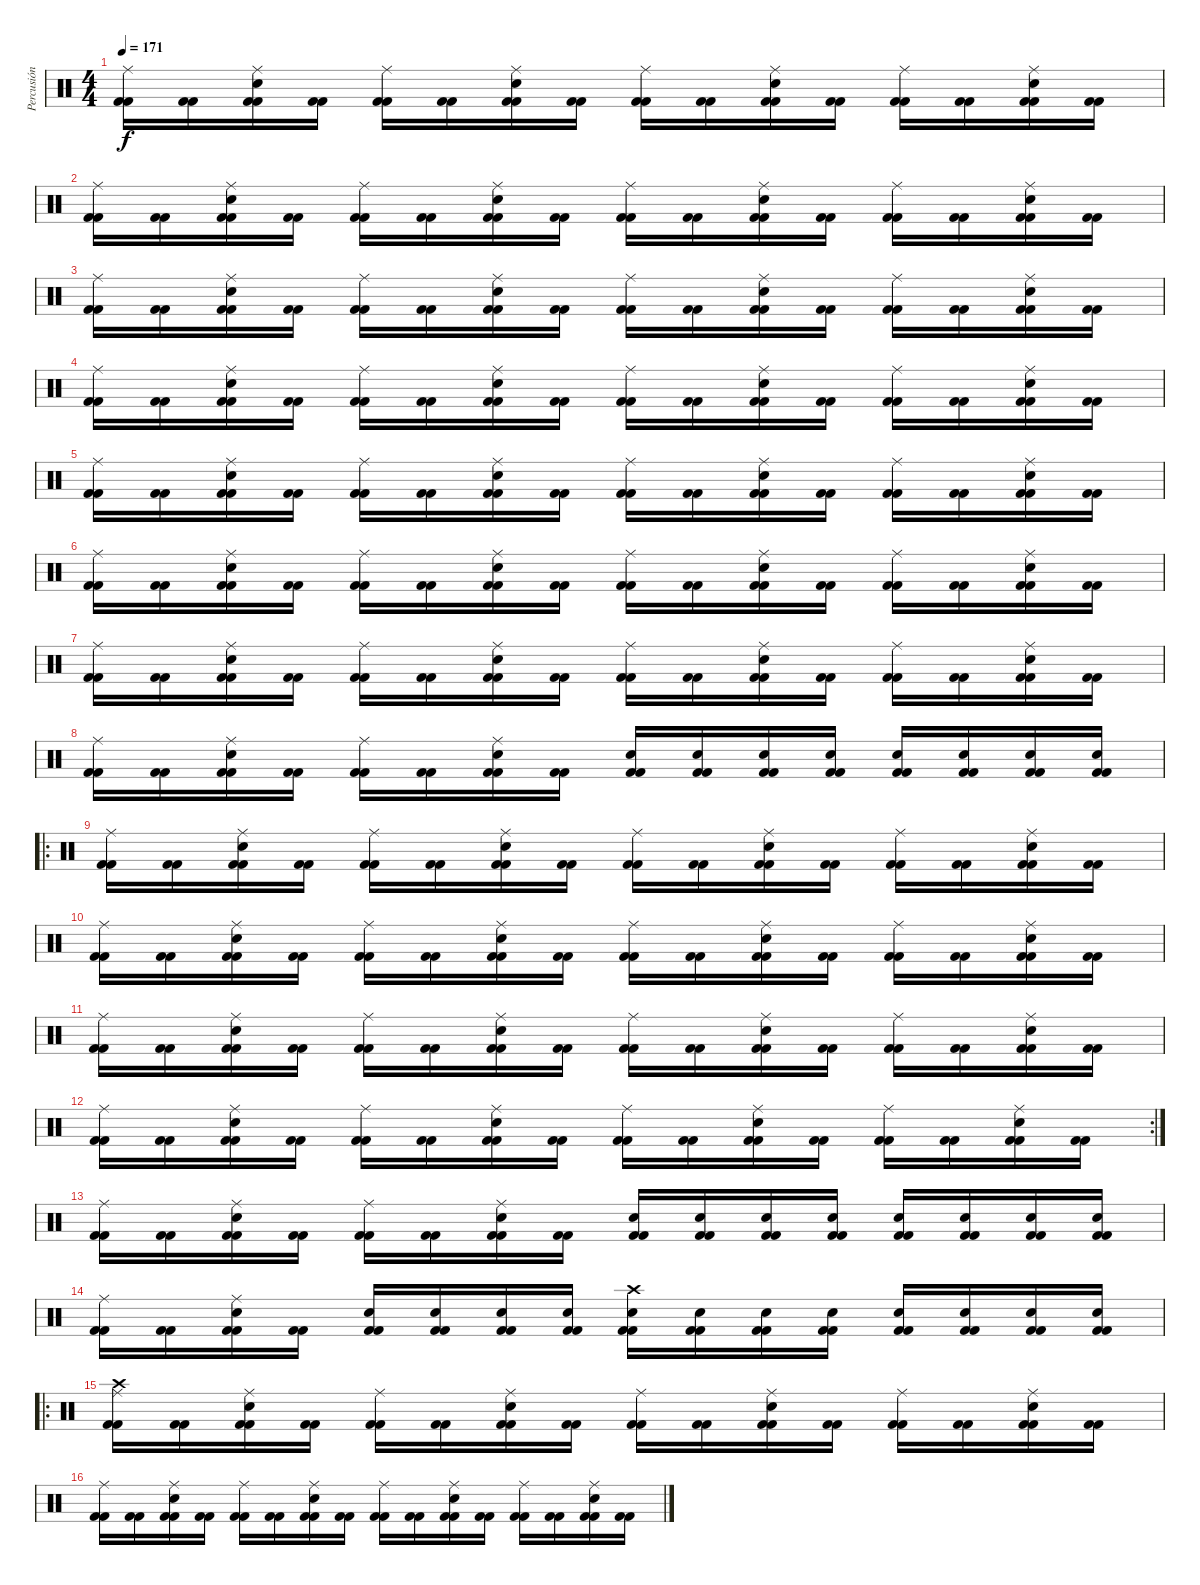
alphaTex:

\track ("Percusión" "Percusión") {instrument percussion}
\staff {score}
\articulation defaults
\ts (4 4)
\tempo 171
\clef neutral
\ks c
("Kick (hit) 2" "Kick (hit) 2" "Ride (middle)").16{dy f} ("Kick (hit) 2" "Kick (hit) 2").16 ("Kick (hit) 2" "Kick (hit) 2" "Electric Snare (hit)" "Ride (middle)").16 ("Kick (hit) 2" "Kick (hit) 2").16 ("Kick (hit) 2" "Kick (hit) 2" "Ride (middle)").16 ("Kick (hit) 2" "Kick (hit) 2").16 ("Kick (hit) 2" "Kick (hit) 2" "Electric Snare (hit)" "Ride (middle)").16 ("Kick (hit) 2" "Kick (hit) 2").16 ("Kick (hit) 2" "Kick (hit) 2" "Ride (middle)").16 ("Kick (hit) 2" "Kick (hit) 2").16 ("Kick (hit) 2" "Kick (hit) 2" "Electric Snare (hit)" "Ride (middle)").16 ("Kick (hit) 2" "Kick (hit) 2").16 ("Kick (hit) 2" "Kick (hit) 2" "Ride (middle)").16 ("Kick (hit) 2" "Kick (hit) 2").16 ("Kick (hit) 2" "Kick (hit) 2" "Electric Snare (hit)" "Ride (middle)").16 ("Kick (hit) 2" "Kick (hit) 2").16 |
("Kick (hit) 2" "Kick (hit) 2" "Ride (middle)").16 ("Kick (hit) 2" "Kick (hit) 2").16 ("Kick (hit) 2" "Kick (hit) 2" "Electric Snare (hit)" "Ride (middle)").16 ("Kick (hit) 2" "Kick (hit) 2").16 ("Kick (hit) 2" "Kick (hit) 2" "Ride (middle)").16 ("Kick (hit) 2" "Kick (hit) 2").16 ("Kick (hit) 2" "Kick (hit) 2" "Electric Snare (hit)" "Ride (middle)").16 ("Kick (hit) 2" "Kick (hit) 2").16 ("Kick (hit) 2" "Kick (hit) 2" "Ride (middle)").16 ("Kick (hit) 2" "Kick (hit) 2").16 ("Kick (hit) 2" "Kick (hit) 2" "Electric Snare (hit)" "Ride (middle)").16 ("Kick (hit) 2" "Kick (hit) 2").16 ("Kick (hit) 2" "Kick (hit) 2" "Ride (middle)").16 ("Kick (hit) 2" "Kick (hit) 2").16 ("Kick (hit) 2" "Kick (hit) 2" "Electric Snare (hit)" "Ride (middle)").16 ("Kick (hit) 2" "Kick (hit) 2").16 |
("Kick (hit) 2" "Kick (hit) 2" "Ride (middle)").16 ("Kick (hit) 2" "Kick (hit) 2").16 ("Kick (hit) 2" "Kick (hit) 2" "Electric Snare (hit)" "Ride (middle)").16 ("Kick (hit) 2" "Kick (hit) 2").16 ("Kick (hit) 2" "Kick (hit) 2" "Ride (middle)").16 ("Kick (hit) 2" "Kick (hit) 2").16 ("Kick (hit) 2" "Kick (hit) 2" "Electric Snare (hit)" "Ride (middle)").16 ("Kick (hit) 2" "Kick (hit) 2").16 ("Kick (hit) 2" "Kick (hit) 2" "Ride (middle)").16 ("Kick (hit) 2" "Kick (hit) 2").16 ("Kick (hit) 2" "Kick (hit) 2" "Electric Snare (hit)" "Ride (middle)").16 ("Kick (hit) 2" "Kick (hit) 2").16 ("Kick (hit) 2" "Kick (hit) 2" "Ride (middle)").16 ("Kick (hit) 2" "Kick (hit) 2").16 ("Kick (hit) 2" "Kick (hit) 2" "Electric Snare (hit)" "Ride (middle)").16 ("Kick (hit) 2" "Kick (hit) 2").16 |
("Kick (hit) 2" "Kick (hit) 2" "Ride (middle)").16 ("Kick (hit) 2" "Kick (hit) 2").16 ("Kick (hit) 2" "Kick (hit) 2" "Electric Snare (hit)" "Ride (middle)").16 ("Kick (hit) 2" "Kick (hit) 2").16 ("Kick (hit) 2" "Kick (hit) 2" "Ride (middle)").16 ("Kick (hit) 2" "Kick (hit) 2").16 ("Kick (hit) 2" "Kick (hit) 2" "Electric Snare (hit)" "Ride (middle)").16 ("Kick (hit) 2" "Kick (hit) 2").16 ("Kick (hit) 2" "Kick (hit) 2" "Ride (middle)").16 ("Kick (hit) 2" "Kick (hit) 2").16 ("Kick (hit) 2" "Kick (hit) 2" "Electric Snare (hit)" "Ride (middle)").16 ("Kick (hit) 2" "Kick (hit) 2").16 ("Kick (hit) 2" "Kick (hit) 2" "Ride (middle)").16 ("Kick (hit) 2" "Kick (hit) 2").16 ("Kick (hit) 2" "Kick (hit) 2" "Electric Snare (hit)" "Ride (middle)").16 ("Kick (hit) 2" "Kick (hit) 2").16 |
("Kick (hit) 2" "Kick (hit) 2" "Ride (middle)").16 ("Kick (hit) 2" "Kick (hit) 2").16 ("Kick (hit) 2" "Kick (hit) 2" "Electric Snare (hit)" "Ride (middle)").16 ("Kick (hit) 2" "Kick (hit) 2").16 ("Kick (hit) 2" "Kick (hit) 2" "Ride (middle)").16 ("Kick (hit) 2" "Kick (hit) 2").16 ("Kick (hit) 2" "Kick (hit) 2" "Electric Snare (hit)" "Ride (middle)").16 ("Kick (hit) 2" "Kick (hit) 2").16 ("Kick (hit) 2" "Kick (hit) 2" "Ride (middle)").16 ("Kick (hit) 2" "Kick (hit) 2").16 ("Kick (hit) 2" "Kick (hit) 2" "Electric Snare (hit)" "Ride (middle)").16 ("Kick (hit) 2" "Kick (hit) 2").16 ("Kick (hit) 2" "Kick (hit) 2" "Ride (middle)").16 ("Kick (hit) 2" "Kick (hit) 2").16 ("Kick (hit) 2" "Kick (hit) 2" "Electric Snare (hit)" "Ride (middle)").16 ("Kick (hit) 2" "Kick (hit) 2").16 |
("Kick (hit) 2" "Kick (hit) 2" "Ride (middle)").16 ("Kick (hit) 2" "Kick (hit) 2").16 ("Kick (hit) 2" "Kick (hit) 2" "Electric Snare (hit)" "Ride (middle)").16 ("Kick (hit) 2" "Kick (hit) 2").16 ("Kick (hit) 2" "Kick (hit) 2" "Ride (middle)").16 ("Kick (hit) 2" "Kick (hit) 2").16 ("Kick (hit) 2" "Kick (hit) 2" "Electric Snare (hit)" "Ride (middle)").16 ("Kick (hit) 2" "Kick (hit) 2").16 ("Kick (hit) 2" "Kick (hit) 2" "Ride (middle)").16 ("Kick (hit) 2" "Kick (hit) 2").16 ("Kick (hit) 2" "Kick (hit) 2" "Electric Snare (hit)" "Ride (middle)").16 ("Kick (hit) 2" "Kick (hit) 2").16 ("Kick (hit) 2" "Kick (hit) 2" "Ride (middle)").16 ("Kick (hit) 2" "Kick (hit) 2").16 ("Kick (hit) 2" "Kick (hit) 2" "Electric Snare (hit)" "Ride (middle)").16 ("Kick (hit) 2" "Kick (hit) 2").16 |
("Kick (hit) 2" "Kick (hit) 2" "Ride (middle)").16 ("Kick (hit) 2" "Kick (hit) 2").16 ("Kick (hit) 2" "Kick (hit) 2" "Electric Snare (hit)" "Ride (middle)").16 ("Kick (hit) 2" "Kick (hit) 2").16 ("Kick (hit) 2" "Kick (hit) 2" "Ride (middle)").16 ("Kick (hit) 2" "Kick (hit) 2").16 ("Kick (hit) 2" "Kick (hit) 2" "Electric Snare (hit)" "Ride (middle)").16 ("Kick (hit) 2" "Kick (hit) 2").16 ("Kick (hit) 2" "Kick (hit) 2" "Ride (middle)").16 ("Kick (hit) 2" "Kick (hit) 2").16 ("Kick (hit) 2" "Kick (hit) 2" "Electric Snare (hit)" "Ride (middle)").16 ("Kick (hit) 2" "Kick (hit) 2").16 ("Kick (hit) 2" "Kick (hit) 2" "Ride (middle)").16 ("Kick (hit) 2" "Kick (hit) 2").16 ("Kick (hit) 2" "Kick (hit) 2" "Electric Snare (hit)" "Ride (middle)").16 ("Kick (hit) 2" "Kick (hit) 2").16 |
("Kick (hit) 2" "Kick (hit) 2" "Ride (middle)").16 ("Kick (hit) 2" "Kick (hit) 2").16 ("Kick (hit) 2" "Kick (hit) 2" "Electric Snare (hit)" "Ride (middle)").16 ("Kick (hit) 2" "Kick (hit) 2").16 ("Kick (hit) 2" "Kick (hit) 2" "Ride (middle)").16 ("Kick (hit) 2" "Kick (hit) 2").16 ("Kick (hit) 2" "Kick (hit) 2" "Electric Snare (hit)" "Ride (middle)").16 ("Kick (hit) 2" "Kick (hit) 2").16 ("Kick (hit) 2" "Kick (hit) 2" "Electric Snare (hit)").16 ("Kick (hit) 2" "Kick (hit) 2" "Electric Snare (hit)").16 ("Kick (hit) 2" "Kick (hit) 2" "Electric Snare (hit)").16 ("Kick (hit) 2" "Kick (hit) 2" "Electric Snare (hit)").16 ("Kick (hit) 2" "Kick (hit) 2" "Electric Snare (hit)").16 ("Kick (hit) 2" "Kick (hit) 2" "Electric Snare (hit)").16 ("Kick (hit) 2" "Kick (hit) 2" "Electric Snare (hit)").16 ("Kick (hit) 2" "Kick (hit) 2" "Electric Snare (hit)").16 |
\ro
("Kick (hit) 2" "Kick (hit) 2" "Ride (middle)").16 ("Kick (hit) 2" "Kick (hit) 2").16 ("Kick (hit) 2" "Kick (hit) 2" "Electric Snare (hit)" "Ride (middle)").16 ("Kick (hit) 2" "Kick (hit) 2").16 ("Kick (hit) 2" "Kick (hit) 2" "Ride (middle)").16 ("Kick (hit) 2" "Kick (hit) 2").16 ("Kick (hit) 2" "Kick (hit) 2" "Electric Snare (hit)" "Ride (middle)").16 ("Kick (hit) 2" "Kick (hit) 2").16 ("Kick (hit) 2" "Kick (hit) 2" "Ride (middle)").16 ("Kick (hit) 2" "Kick (hit) 2").16 ("Kick (hit) 2" "Kick (hit) 2" "Electric Snare (hit)" "Ride (middle)").16 ("Kick (hit) 2" "Kick (hit) 2").16 ("Kick (hit) 2" "Kick (hit) 2" "Ride (middle)").16 ("Kick (hit) 2" "Kick (hit) 2").16 ("Kick (hit) 2" "Kick (hit) 2" "Electric Snare (hit)" "Ride (middle)").16 ("Kick (hit) 2" "Kick (hit) 2").16 |
("Kick (hit) 2" "Kick (hit) 2" "Ride (middle)").16 ("Kick (hit) 2" "Kick (hit) 2").16 ("Kick (hit) 2" "Kick (hit) 2" "Electric Snare (hit)" "Ride (middle)").16 ("Kick (hit) 2" "Kick (hit) 2").16 ("Kick (hit) 2" "Kick (hit) 2" "Ride (middle)").16 ("Kick (hit) 2" "Kick (hit) 2").16 ("Kick (hit) 2" "Kick (hit) 2" "Electric Snare (hit)" "Ride (middle)").16 ("Kick (hit) 2" "Kick (hit) 2").16 ("Kick (hit) 2" "Kick (hit) 2" "Ride (middle)").16 ("Kick (hit) 2" "Kick (hit) 2").16 ("Kick (hit) 2" "Kick (hit) 2" "Electric Snare (hit)" "Ride (middle)").16 ("Kick (hit) 2" "Kick (hit) 2").16 ("Kick (hit) 2" "Kick (hit) 2" "Ride (middle)").16 ("Kick (hit) 2" "Kick (hit) 2").16 ("Kick (hit) 2" "Kick (hit) 2" "Electric Snare (hit)" "Ride (middle)").16 ("Kick (hit) 2" "Kick (hit) 2").16 |
("Kick (hit) 2" "Kick (hit) 2" "Ride (middle)").16 ("Kick (hit) 2" "Kick (hit) 2").16 ("Kick (hit) 2" "Kick (hit) 2" "Electric Snare (hit)" "Ride (middle)").16 ("Kick (hit) 2" "Kick (hit) 2").16 ("Kick (hit) 2" "Kick (hit) 2" "Ride (middle)").16 ("Kick (hit) 2" "Kick (hit) 2").16 ("Kick (hit) 2" "Kick (hit) 2" "Electric Snare (hit)" "Ride (middle)").16 ("Kick (hit) 2" "Kick (hit) 2").16 ("Kick (hit) 2" "Kick (hit) 2" "Ride (middle)").16 ("Kick (hit) 2" "Kick (hit) 2").16 ("Kick (hit) 2" "Kick (hit) 2" "Electric Snare (hit)" "Ride (middle)").16 ("Kick (hit) 2" "Kick (hit) 2").16 ("Kick (hit) 2" "Kick (hit) 2" "Ride (middle)").16 ("Kick (hit) 2" "Kick (hit) 2").16 ("Kick (hit) 2" "Kick (hit) 2" "Electric Snare (hit)" "Ride (middle)").16 ("Kick (hit) 2" "Kick (hit) 2").16 |
\rc 2
("Kick (hit) 2" "Kick (hit) 2" "Ride (middle)").16 ("Kick (hit) 2" "Kick (hit) 2").16 ("Kick (hit) 2" "Kick (hit) 2" "Electric Snare (hit)" "Ride (middle)").16 ("Kick (hit) 2" "Kick (hit) 2").16 ("Kick (hit) 2" "Kick (hit) 2" "Ride (middle)").16 ("Kick (hit) 2" "Kick (hit) 2").16 ("Kick (hit) 2" "Kick (hit) 2" "Electric Snare (hit)" "Ride (middle)").16 ("Kick (hit) 2" "Kick (hit) 2").16 ("Kick (hit) 2" "Kick (hit) 2" "Ride (middle)").16 ("Kick (hit) 2" "Kick (hit) 2").16 ("Kick (hit) 2" "Kick (hit) 2" "Electric Snare (hit)" "Ride (middle)").16 ("Kick (hit) 2" "Kick (hit) 2").16 ("Kick (hit) 2" "Kick (hit) 2" "Ride (middle)").16 ("Kick (hit) 2" "Kick (hit) 2").16 ("Kick (hit) 2" "Kick (hit) 2" "Electric Snare (hit)" "Ride (middle)").16 ("Kick (hit) 2" "Kick (hit) 2").16 |
("Kick (hit) 2" "Kick (hit) 2" "Ride (middle)").16 ("Kick (hit) 2" "Kick (hit) 2").16 ("Kick (hit) 2" "Kick (hit) 2" "Electric Snare (hit)" "Ride (middle)").16 ("Kick (hit) 2" "Kick (hit) 2").16 ("Kick (hit) 2" "Kick (hit) 2" "Ride (middle)").16 ("Kick (hit) 2" "Kick (hit) 2").16 ("Kick (hit) 2" "Kick (hit) 2" "Electric Snare (hit)" "Ride (middle)").16 ("Kick (hit) 2" "Kick (hit) 2").16 ("Kick (hit) 2" "Kick (hit) 2" "Electric Snare (hit)").16 ("Kick (hit) 2" "Kick (hit) 2" "Electric Snare (hit)").16 ("Kick (hit) 2" "Kick (hit) 2" "Electric Snare (hit)").16 ("Kick (hit) 2" "Kick (hit) 2" "Electric Snare (hit)").16 ("Kick (hit) 2" "Kick (hit) 2" "Electric Snare (hit)").16 ("Kick (hit) 2" "Kick (hit) 2" "Electric Snare (hit)").16 ("Kick (hit) 2" "Kick (hit) 2" "Electric Snare (hit)").16 ("Kick (hit) 2" "Kick (hit) 2" "Electric Snare (hit)").16 |
("Kick (hit) 2" "Kick (hit) 2" "Ride (middle)").16 ("Kick (hit) 2" "Kick (hit) 2").16 ("Kick (hit) 2" "Kick (hit) 2" "Electric Snare (hit)" "Ride (middle)").16 ("Kick (hit) 2" "Kick (hit) 2").16 ("Kick (hit) 2" "Kick (hit) 2" "Electric Snare (hit)").16 ("Kick (hit) 2" "Kick (hit) 2" "Electric Snare (hit)").16 ("Kick (hit) 2" "Kick (hit) 2" "Electric Snare (hit)").16 ("Kick (hit) 2" "Kick (hit) 2" "Electric Snare (hit)").16 ("Kick (hit) 2" "Kick (hit) 2" "Electric Snare (hit)" "Crash high (hit)").16 ("Kick (hit) 2" "Kick (hit) 2" "Electric Snare (hit)").16 ("Kick (hit) 2" "Kick (hit) 2" "Electric Snare (hit)").16 ("Kick (hit) 2" "Kick (hit) 2" "Electric Snare (hit)").16 ("Kick (hit) 2" "Kick (hit) 2" "Electric Snare (hit)").16 ("Kick (hit) 2" "Kick (hit) 2" "Electric Snare (hit)").16 ("Kick (hit) 2" "Kick (hit) 2" "Electric Snare (hit)").16 ("Kick (hit) 2" "Kick (hit) 2" "Electric Snare (hit)").16 |
\ro
("Kick (hit) 2" "Kick (hit) 2" "Ride (middle)" "Crash high (hit)").16 ("Kick (hit) 2" "Kick (hit) 2").16 ("Kick (hit) 2" "Kick (hit) 2" "Electric Snare (hit)" "Ride (middle)").16 ("Kick (hit) 2" "Kick (hit) 2").16 ("Kick (hit) 2" "Kick (hit) 2" "Ride (middle)").16 ("Kick (hit) 2" "Kick (hit) 2").16 ("Kick (hit) 2" "Kick (hit) 2" "Electric Snare (hit)" "Ride (middle)").16 ("Kick (hit) 2" "Kick (hit) 2").16 ("Kick (hit) 2" "Kick (hit) 2" "Ride (middle)").16 ("Kick (hit) 2" "Kick (hit) 2").16 ("Kick (hit) 2" "Kick (hit) 2" "Electric Snare (hit)" "Ride (middle)").16 ("Kick (hit) 2" "Kick (hit) 2").16 ("Kick (hit) 2" "Kick (hit) 2" "Ride (middle)").16 ("Kick (hit) 2" "Kick (hit) 2").16 ("Kick (hit) 2" "Kick (hit) 2" "Electric Snare (hit)" "Ride (middle)").16 ("Kick (hit) 2" "Kick (hit) 2").16 |
("Kick (hit) 2" "Kick (hit) 2" "Ride (middle)").16 ("Kick (hit) 2" "Kick (hit) 2").16 ("Kick (hit) 2" "Kick (hit) 2" "Electric Snare (hit)" "Ride (middle)").16 ("Kick (hit) 2" "Kick (hit) 2").16 ("Kick (hit) 2" "Kick (hit) 2" "Ride (middle)").16 ("Kick (hit) 2" "Kick (hit) 2").16 ("Kick (hit) 2" "Kick (hit) 2" "Electric Snare (hit)" "Ride (middle)").16 ("Kick (hit) 2" "Kick (hit) 2").16 ("Kick (hit) 2" "Kick (hit) 2" "Ride (middle)").16 ("Kick (hit) 2" "Kick (hit) 2").16 ("Kick (hit) 2" "Kick (hit) 2" "Electric Snare (hit)" "Ride (middle)").16 ("Kick (hit) 2" "Kick (hit) 2").16 ("Kick (hit) 2" "Kick (hit) 2" "Ride (middle)").16 ("Kick (hit) 2" "Kick (hit) 2").16 ("Kick (hit) 2" "Kick (hit) 2" "Electric Snare (hit)" "Ride (middle)").16 ("Kick (hit) 2" "Kick (hit) 2").16
